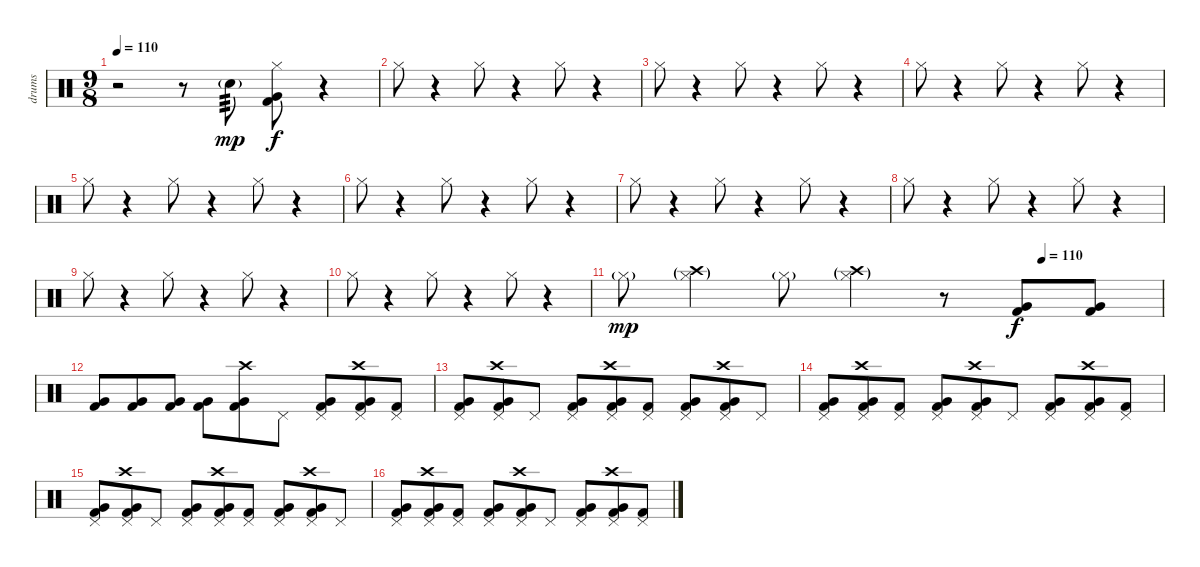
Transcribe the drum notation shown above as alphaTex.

\track ("drums" "drums") {instrument percussion}
\staff {score}
\articulation defaults
\ts (9 8)
\tempo 110
\clef neutral
\ks c
r.2{dy mp} r.8 "Electric Snare (hit)"{g}.8{tp 3} ("Hi-Hat (closed)" "Very Low Tom (hit)" "Kick (hit) 2").8{dy f} r.4 |
"Hi-Hat (closed)".8 r.4 "Hi-Hat (closed)".8 r.4 "Hi-Hat (closed)".8 r.4 |
"Hi-Hat (closed)".8 r.4 "Hi-Hat (closed)".8 r.4 "Hi-Hat (closed)".8 r.4 |
"Hi-Hat (closed)".8 r.4 "Hi-Hat (closed)".8 r.4 "Hi-Hat (closed)".8 r.4 |
"Hi-Hat (closed)".8 r.4 "Hi-Hat (closed)".8 r.4 "Hi-Hat (closed)".8 r.4 |
"Hi-Hat (closed)".8 r.4 "Hi-Hat (closed)".8 r.4 "Hi-Hat (closed)".8 r.4 |
"Hi-Hat (closed)".8 r.4 "Hi-Hat (closed)".8 r.4 "Hi-Hat (closed)".8 r.4 |
"Hi-Hat (closed)".8 r.4 "Hi-Hat (closed)".8 r.4 "Hi-Hat (closed)".8 r.4 |
"Hi-Hat (closed)".8 r.4 "Hi-Hat (closed)".8 r.4 "Hi-Hat (closed)".8 r.4 |
"Hi-Hat (closed)".8 r.4 "Hi-Hat (closed)".8 r.4 "Hi-Hat (closed)".8 r.4 |
\tempo (110 0.7777777777777778)
"Hi-Hat (closed)"{g}.8{dy mp} ("Hi-Hat (closed)"{g} "Crash high (hit)"{g}).4 "Hi-Hat (closed)"{g}.8 ("Hi-Hat (closed)"{g} "Crash high (hit)"{g}).4 r.8 ("Very Low Tom (hit)" "Kick (hit) 2").8{dy f} ("Very Low Tom (hit)" "Kick (hit) 2").8 |
("Very Low Tom (hit)" "Kick (hit) 2").8 ("Very Low Tom (hit)" "Kick (hit) 2").8 ("Very Low Tom (hit)" "Kick (hit) 2").8 ("Very Low Tom (hit)" "Kick (hit) 2").8 ("Very Low Tom (hit)" "Crash high (hit)" "Kick (hit) 2").8 "Pedal Hi-Hat (hit)".8 ("Very Low Tom (hit)" "Pedal Hi-Hat (hit)" "Kick (hit) 2").8 ("Very Low Tom (hit)" "Crash high (hit)" "Pedal Hi-Hat (hit)" "Kick (hit) 2").8 ("Pedal Hi-Hat (hit)" "Kick (hit) 2").8 |
("Very Low Tom (hit)" "Pedal Hi-Hat (hit)" "Kick (hit) 2").8 ("Very Low Tom (hit)" "Crash high (hit)" "Pedal Hi-Hat (hit)" "Kick (hit) 2").8 "Pedal Hi-Hat (hit)".8 ("Very Low Tom (hit)" "Pedal Hi-Hat (hit)" "Kick (hit) 2").8 ("Very Low Tom (hit)" "Crash high (hit)" "Pedal Hi-Hat (hit)" "Kick (hit) 2").8 ("Pedal Hi-Hat (hit)" "Kick (hit) 2").8 ("Very Low Tom (hit)" "Pedal Hi-Hat (hit)" "Kick (hit) 2").8 ("Very Low Tom (hit)" "Crash high (hit)" "Pedal Hi-Hat (hit)" "Kick (hit) 2").8 "Pedal Hi-Hat (hit)".8 |
("Very Low Tom (hit)" "Pedal Hi-Hat (hit)" "Kick (hit) 2").8 ("Very Low Tom (hit)" "Crash high (hit)" "Pedal Hi-Hat (hit)" "Kick (hit) 2").8 ("Pedal Hi-Hat (hit)" "Kick (hit) 2").8 ("Very Low Tom (hit)" "Pedal Hi-Hat (hit)" "Kick (hit) 2").8 ("Very Low Tom (hit)" "Crash high (hit)" "Pedal Hi-Hat (hit)" "Kick (hit) 2").8 "Pedal Hi-Hat (hit)".8 ("Very Low Tom (hit)" "Pedal Hi-Hat (hit)" "Kick (hit) 2").8 ("Very Low Tom (hit)" "Crash high (hit)" "Pedal Hi-Hat (hit)" "Kick (hit) 2").8 ("Pedal Hi-Hat (hit)" "Kick (hit) 2").8 |
("Very Low Tom (hit)" "Pedal Hi-Hat (hit)" "Kick (hit) 2").8 ("Very Low Tom (hit)" "Crash high (hit)" "Pedal Hi-Hat (hit)" "Kick (hit) 2").8 "Pedal Hi-Hat (hit)".8 ("Very Low Tom (hit)" "Pedal Hi-Hat (hit)" "Kick (hit) 2").8 ("Very Low Tom (hit)" "Crash high (hit)" "Pedal Hi-Hat (hit)" "Kick (hit) 2").8 ("Pedal Hi-Hat (hit)" "Kick (hit) 2").8 ("Very Low Tom (hit)" "Pedal Hi-Hat (hit)" "Kick (hit) 2").8 ("Very Low Tom (hit)" "Crash high (hit)" "Pedal Hi-Hat (hit)" "Kick (hit) 2").8 "Pedal Hi-Hat (hit)".8 |
("Very Low Tom (hit)" "Pedal Hi-Hat (hit)" "Kick (hit) 2").8 ("Very Low Tom (hit)" "Crash high (hit)" "Pedal Hi-Hat (hit)" "Kick (hit) 2").8 ("Pedal Hi-Hat (hit)" "Kick (hit) 2").8 ("Very Low Tom (hit)" "Pedal Hi-Hat (hit)" "Kick (hit) 2").8 ("Very Low Tom (hit)" "Crash high (hit)" "Pedal Hi-Hat (hit)" "Kick (hit) 2").8 "Pedal Hi-Hat (hit)".8 ("Very Low Tom (hit)" "Pedal Hi-Hat (hit)" "Kick (hit) 2").8 ("Very Low Tom (hit)" "Crash high (hit)" "Pedal Hi-Hat (hit)" "Kick (hit) 2").8 ("Pedal Hi-Hat (hit)" "Kick (hit) 2").8
